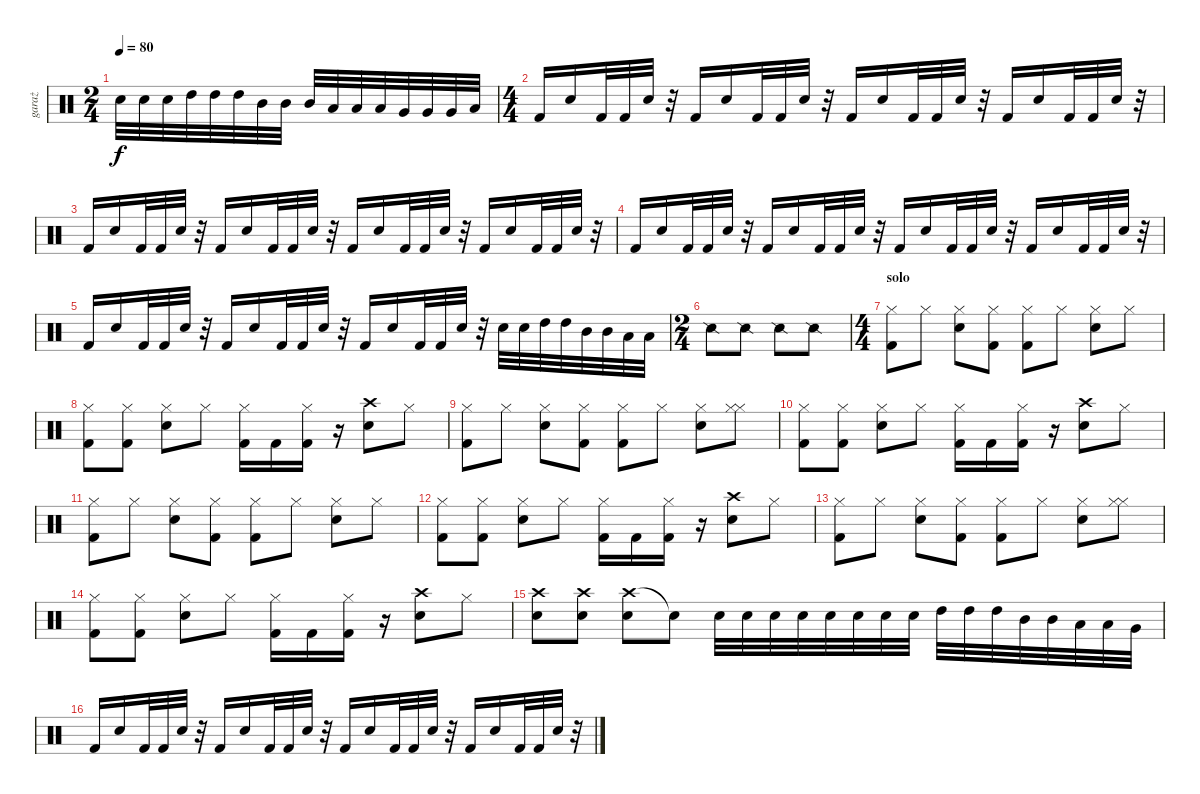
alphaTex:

\track ("garaż" "garaż") {instrument percussion}
\staff {score}
\articulation defaults
\ts (2 4)
\tempo 80
\clef neutral
\ks c "Snare (hit) 2".32{dy f} "Snare (hit) 2".32 "Snare (hit) 2".32 "High Tom (hit)".32 "High Tom (hit)".32 "High Tom (hit)".32 "Mid Tom (hit)".32 "Mid Tom (hit)".32 "Mid Tom (hit)".32 "Low Tom (hit)".32 "Low Tom (hit)".32 "Low Tom (hit)".32 "Very Low Tom (hit)".32 "Very Low Tom (hit)".32 "Very Low Tom (hit)".32 "Low Floor Tom (hit)".32
|
\ts (4 4)
"Kick (hit) 2".16 "Snare (hit) 2".16 "Kick (hit) 2".32 "Kick (hit) 2".32 "Snare (hit) 2".32 r.32 "Kick (hit) 2".16 "Snare (hit) 2".16 "Kick (hit) 2".32 "Kick (hit) 2".32 "Snare (hit) 2".32 r.32 "Kick (hit) 2".16 "Snare (hit) 2".16 "Kick (hit) 2".32 "Kick (hit) 2".32 "Snare (hit) 2".32 r.32 "Kick (hit) 2".16 "Snare (hit) 2".16 "Kick (hit) 2".32 "Kick (hit) 2".32 "Snare (hit) 2".32 r.32 |
"Kick (hit) 2".16 "Snare (hit) 2".16 "Kick (hit) 2".32 "Kick (hit) 2".32 "Snare (hit) 2".32 r.32 "Kick (hit) 2".16 "Snare (hit) 2".16 "Kick (hit) 2".32 "Kick (hit) 2".32 "Snare (hit) 2".32 r.32 "Kick (hit) 2".16 "Snare (hit) 2".16 "Kick (hit) 2".32 "Kick (hit) 2".32 "Snare (hit) 2".32 r.32 "Kick (hit) 2".16 "Snare (hit) 2".16 "Kick (hit) 2".32 "Kick (hit) 2".32 "Snare (hit) 2".32 r.32 |
"Kick (hit) 2".16 "Snare (hit) 2".16 "Kick (hit) 2".32 "Kick (hit) 2".32 "Snare (hit) 2".32 r.32 "Kick (hit) 2".16 "Snare (hit) 2".16 "Kick (hit) 2".32 "Kick (hit) 2".32 "Snare (hit) 2".32 r.32 "Kick (hit) 2".16 "Snare (hit) 2".16 "Kick (hit) 2".32 "Kick (hit) 2".32 "Snare (hit) 2".32 r.32 "Kick (hit) 2".16 "Snare (hit) 2".16 "Kick (hit) 2".32 "Kick (hit) 2".32 "Snare (hit) 2".32 r.32 |
"Kick (hit) 2".16 "Snare (hit) 2".16 "Kick (hit) 2".32 "Kick (hit) 2".32 "Snare (hit) 2".32 r.32 "Kick (hit) 2".16 "Snare (hit) 2".16 "Kick (hit) 2".32 "Kick (hit) 2".32 "Snare (hit) 2".32 r.32 "Kick (hit) 2".16 "Snare (hit) 2".16 "Kick (hit) 2".32 "Kick (hit) 2".32 "Snare (hit) 2".32 r.32 "Snare (hit) 2".32 "Snare (hit) 2".32 "High Tom (hit)".32 "High Tom (hit)".32 "Mid Tom (hit)".32 "Mid Tom (hit)".32 "Low Tom (hit)".32 "Low Tom (hit)".32 |
\ts (2 4)
"Snare (side stick) 2".8 "Snare (side stick) 2".8 "Snare (side stick) 2".8 "Snare (side stick) 2".8 |
\ts (4 4)
\section ("" "solo")
("Hi-Hat (closed)" "Kick (hit) 2").8 "Hi-Hat (closed)".8 ("Hi-Hat (closed)" "Snare (hit) 2").8 ("Hi-Hat (closed)" "Kick (hit) 2").8 ("Hi-Hat (closed)" "Kick (hit) 2").8 "Hi-Hat (closed)".8 ("Hi-Hat (closed)" "Snare (hit) 2").8 "Hi-Hat (closed)".8 |
("Hi-Hat (closed)" "Kick (hit) 2").8 ("Hi-Hat (closed)" "Kick (hit) 2").8 ("Hi-Hat (closed)" "Snare (hit) 2").8 "Hi-Hat (closed)".8 ("Hi-Hat (closed)" "Kick (hit) 2").16 "Kick (hit) 2".16 ("Hi-Hat (closed)" "Kick (hit) 2").16 r.16 ("Crash high (hit)" "Snare (hit) 2").8 "Hi-Hat (closed)".8 |
("Hi-Hat (closed)" "Kick (hit) 2").8 "Hi-Hat (closed)".8 ("Hi-Hat (closed)" "Snare (hit) 2").8 ("Hi-Hat (closed)" "Kick (hit) 2").8 ("Hi-Hat (closed)" "Kick (hit) 2").8 "Hi-Hat (closed)".8 ("Hi-Hat (closed)" "Snare (hit) 2").8 ("Hi-Hat (closed)" "Hi-Hat (closed)").8 |
("Hi-Hat (closed)" "Kick (hit) 2").8 ("Hi-Hat (closed)" "Kick (hit) 2").8 ("Hi-Hat (closed)" "Snare (hit) 2").8 "Hi-Hat (closed)".8 ("Hi-Hat (closed)" "Kick (hit) 2").16 "Kick (hit) 2".16 ("Hi-Hat (closed)" "Kick (hit) 2").16 r.16 ("Crash high (hit)" "Snare (hit) 2").8 "Hi-Hat (closed)".8 |
("Hi-Hat (closed)" "Kick (hit) 2").8 "Hi-Hat (closed)".8 ("Hi-Hat (closed)" "Snare (hit) 2").8 ("Hi-Hat (closed)" "Kick (hit) 2").8 ("Hi-Hat (closed)" "Kick (hit) 2").8 "Hi-Hat (closed)".8 ("Hi-Hat (closed)" "Snare (hit) 2").8 "Hi-Hat (closed)".8 |
("Hi-Hat (closed)" "Kick (hit) 2").8 ("Hi-Hat (closed)" "Kick (hit) 2").8 ("Hi-Hat (closed)" "Snare (hit) 2").8 "Hi-Hat (closed)".8 ("Hi-Hat (closed)" "Kick (hit) 2").16 "Kick (hit) 2".16 ("Hi-Hat (closed)" "Kick (hit) 2").16 r.16 ("Crash high (hit)" "Snare (hit) 2").8 "Hi-Hat (closed)".8 |
("Hi-Hat (closed)" "Kick (hit) 2").8 "Hi-Hat (closed)".8 ("Hi-Hat (closed)" "Snare (hit) 2").8 ("Hi-Hat (closed)" "Kick (hit) 2").8 ("Hi-Hat (closed)" "Kick (hit) 2").8 "Hi-Hat (closed)".8 ("Hi-Hat (closed)" "Snare (hit) 2").8 ("Hi-Hat (closed)" "Hi-Hat (closed)").8 |
("Hi-Hat (closed)" "Kick (hit) 2").8 ("Hi-Hat (closed)" "Kick (hit) 2").8 ("Hi-Hat (closed)" "Snare (hit) 2").8 "Hi-Hat (closed)".8 ("Hi-Hat (closed)" "Kick (hit) 2").16 "Kick (hit) 2".16 ("Hi-Hat (closed)" "Kick (hit) 2").16 r.16 ("Crash high (hit)" "Snare (hit) 2").8 "Hi-Hat (closed)".8 |
("Crash high (hit)" "Snare (hit) 2").8 ("Crash high (hit)" "Snare (hit) 2").8 ("Crash high (hit)" "Snare (hit) 2").8 "Snare (hit)"{t}.8 "Snare (hit) 2".32 "Snare (hit) 2".32 "Snare (hit) 2".32 "Snare (hit) 2".32 "Snare (hit) 2".32 "Snare (hit) 2".32 "Snare (hit) 2".32 "Snare (hit) 2".32 "High Tom (hit)".32 "High Tom (hit)".32 "High Tom (hit)".32 "Mid Tom (hit)".32 "Mid Tom (hit)".32 "Low Tom (hit)".32 "Low Tom (hit)".32 "Very Low Tom (hit)".32 |
"Kick (hit) 2".16 "Snare (hit) 2".16 "Kick (hit) 2".32 "Kick (hit) 2".32 "Snare (hit) 2".32 r.32 "Kick (hit) 2".16 "Snare (hit) 2".16 "Kick (hit) 2".32 "Kick (hit) 2".32 "Snare (hit) 2".32 r.32 "Kick (hit) 2".16 "Snare (hit) 2".16 "Kick (hit) 2".32 "Kick (hit) 2".32 "Snare (hit) 2".32 r.32 "Kick (hit) 2".16 "Snare (hit) 2".16 "Kick (hit) 2".32 "Kick (hit) 2".32 "Snare (hit) 2".32 r.32
